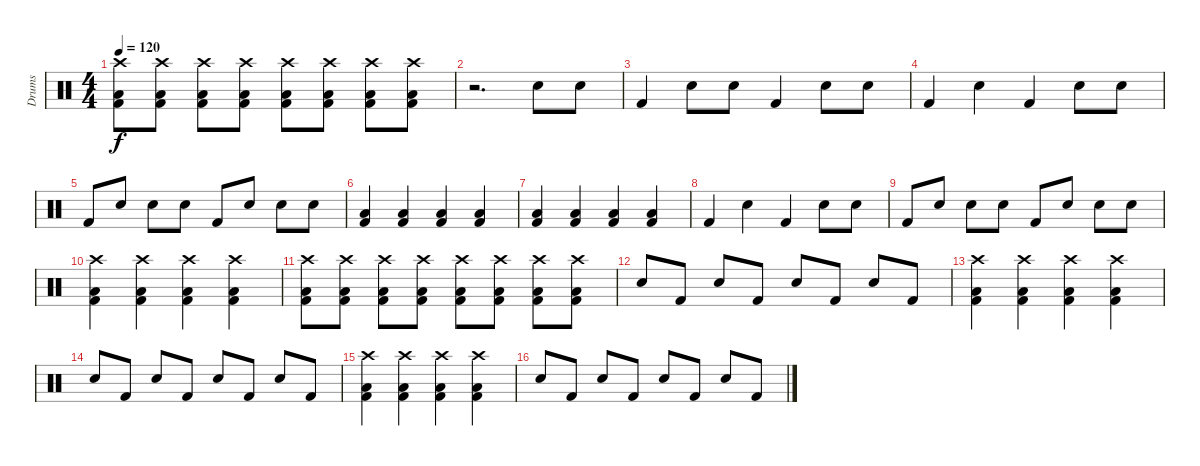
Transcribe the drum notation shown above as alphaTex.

\track ("Drums" "Drums") {instrument percussion}
\staff {score}
\articulation defaults
\ts (4 4)
\tempo 120
\clef neutral
\ks c
("Crash high (hit)" "Kick (hit) 2" "Low Tom (hit)").8{dy f} ("Crash high (hit)" "Kick (hit) 2" "Low Tom (hit)").8 ("Crash high (hit)" "Kick (hit) 2" "Low Tom (hit)").8 ("Crash high (hit)" "Kick (hit) 2" "Low Tom (hit)").8 ("Crash high (hit)" "Kick (hit) 2" "Low Tom (hit)").8 ("Crash high (hit)" "Kick (hit) 2" "Low Tom (hit)").8 ("Crash high (hit)" "Kick (hit) 2" "Low Tom (hit)").8 ("Crash high (hit)" "Kick (hit) 2" "Low Tom (hit)").8 |
r.2{d} "Snare (hit) 2".8 "Snare (hit) 2".8 |
"Kick (hit) 2".4 "Snare (hit) 2".8 "Snare (hit) 2".8 "Kick (hit) 2".4 "Snare (hit) 2".8 "Snare (hit) 2".8 |
"Kick (hit) 2".4 "Snare (hit) 2".4 "Kick (hit) 2".4 "Snare (hit) 2".8 "Snare (hit) 2".8 |
"Kick (hit) 2".8 "Snare (hit) 2".8 "Snare (hit) 2".8 "Snare (hit) 2".8 "Kick (hit) 2".8 "Snare (hit) 2".8 "Snare (hit) 2".8 "Snare (hit) 2".8 |
("Kick (hit) 2" "Low Tom (hit)").4 ("Kick (hit) 2" "Low Tom (hit)").4 ("Kick (hit) 2" "Low Tom (hit)").4 ("Kick (hit) 2" "Low Tom (hit)").4 |
("Kick (hit) 2" "Low Tom (hit)").4 ("Kick (hit) 2" "Low Tom (hit)").4 ("Kick (hit) 2" "Low Tom (hit)").4 ("Kick (hit) 2" "Low Tom (hit)").4 |
"Kick (hit) 2".4 "Snare (hit) 2".4 "Kick (hit) 2".4 "Snare (hit) 2".8 "Snare (hit) 2".8 |
"Kick (hit) 2".8 "Snare (hit) 2".8 "Snare (hit) 2".8 "Snare (hit) 2".8 "Kick (hit) 2".8 "Snare (hit) 2".8 "Snare (hit) 2".8 "Snare (hit) 2".8 |
("Crash high (hit)" "Kick (hit) 2" "Low Tom (hit)").4 ("Crash high (hit)" "Kick (hit) 2" "Low Tom (hit)").4 ("Crash high (hit)" "Kick (hit) 2" "Low Tom (hit)").4 ("Crash high (hit)" "Kick (hit) 2" "Low Tom (hit)").4 |
("Crash high (hit)" "Kick (hit) 2" "Low Tom (hit)").8 ("Crash high (hit)" "Kick (hit) 2" "Low Tom (hit)").8 ("Crash high (hit)" "Kick (hit) 2" "Low Tom (hit)").8 ("Crash high (hit)" "Kick (hit) 2" "Low Tom (hit)").8 ("Crash high (hit)" "Kick (hit) 2" "Low Tom (hit)").8 ("Crash high (hit)" "Kick (hit) 2" "Low Tom (hit)").8 ("Crash high (hit)" "Kick (hit) 2" "Low Tom (hit)").8 ("Crash high (hit)" "Kick (hit) 2" "Low Tom (hit)").8 |
"Snare (hit) 2".8 "Kick (hit) 2".8 "Snare (hit) 2".8 "Kick (hit) 2".8 "Snare (hit) 2".8 "Kick (hit) 2".8 "Snare (hit) 2".8 "Kick (hit) 2".8 |
("Crash high (hit)" "Kick (hit) 2" "Low Tom (hit)").4 ("Crash high (hit)" "Kick (hit) 2" "Low Tom (hit)").4 ("Crash high (hit)" "Kick (hit) 2" "Low Tom (hit)").4 ("Crash high (hit)" "Kick (hit) 2" "Low Tom (hit)").4 |
"Snare (hit) 2".8 "Kick (hit) 2".8 "Snare (hit) 2".8 "Kick (hit) 2".8 "Snare (hit) 2".8 "Kick (hit) 2".8 "Snare (hit) 2".8 "Kick (hit) 2".8 |
("Crash high (hit)" "Kick (hit) 2" "Low Tom (hit)").4 ("Crash high (hit)" "Kick (hit) 2" "Low Tom (hit)").4 ("Crash high (hit)" "Kick (hit) 2" "Low Tom (hit)").4 ("Crash high (hit)" "Kick (hit) 2" "Low Tom (hit)").4 |
"Snare (hit) 2".8 "Kick (hit) 2".8 "Snare (hit) 2".8 "Kick (hit) 2".8 "Snare (hit) 2".8 "Kick (hit) 2".8 "Snare (hit) 2".8 "Kick (hit) 2".8
